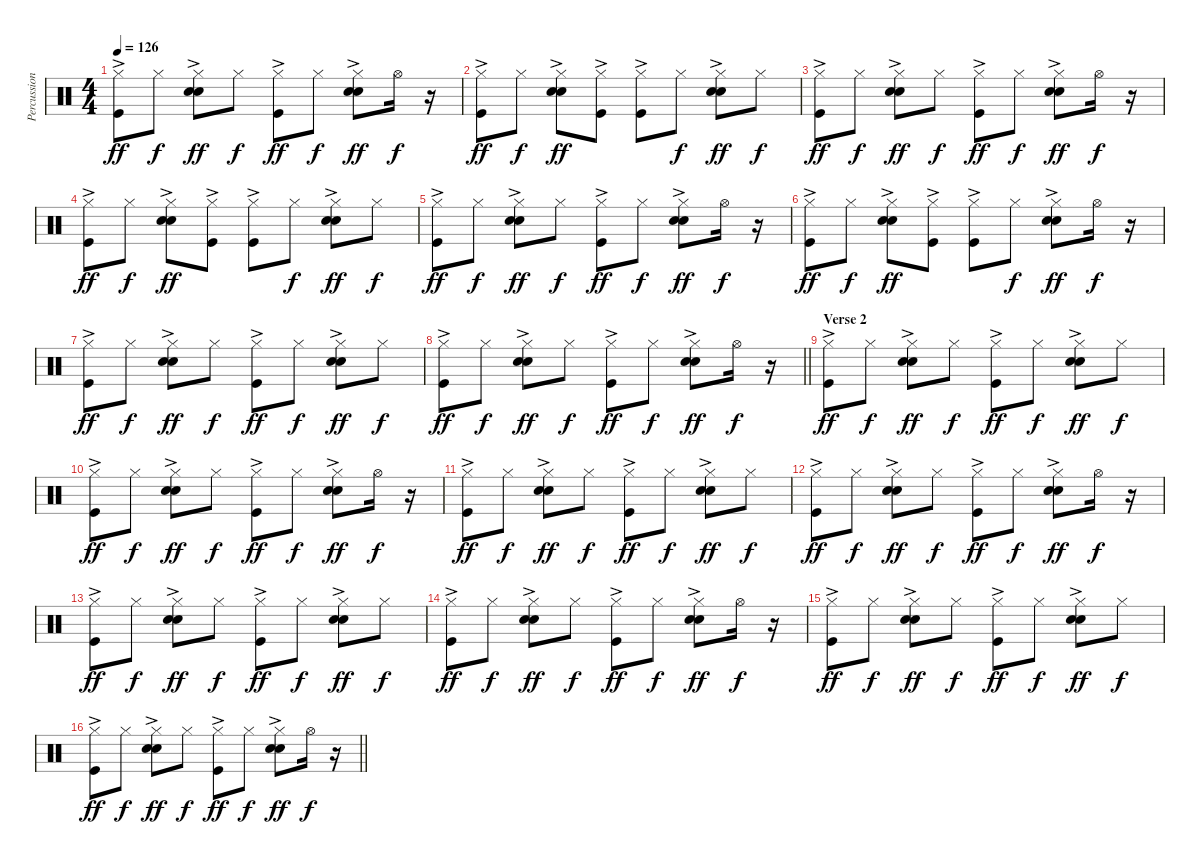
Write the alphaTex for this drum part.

\track ("Percussion" "Percussion") {instrument percussion}
\staff {score}
\articulation defaults
\ts (4 4)
\tempo 126
\clef neutral
\ks c
("Hi-Hat (closed)" "Kick (hit)"{ac}).8{dy ff} "Hi-Hat (closed)".8{dy f} ("Hi-Hat (closed)" "Hand Clap (hit)"{ac} "Snare (hit) 2"{ac}).8{dy ff} "Hi-Hat (closed)".8{dy f} ("Hi-Hat (closed)" "Kick (hit)"{ac}).8{dy ff} "Hi-Hat (closed)".8{dy f} ("Hi-Hat (closed)" "Hand Clap (hit)"{ac} "Snare (hit) 2"{ac}).8{dy ff} "Hi-Hat (open)".16{dy f} r.16 |
("Hi-Hat (closed)" "Kick (hit)"{ac}).8{dy ff} "Hi-Hat (closed)".8{dy f} ("Hi-Hat (closed)" "Hand Clap (hit)"{ac} "Snare (hit) 2"{ac}).8{dy ff} ("Hi-Hat (closed)" "Kick (hit)"{ac}).8 ("Hi-Hat (closed)" "Kick (hit)"{ac}).8 "Hi-Hat (closed)".8{dy f} ("Hi-Hat (closed)" "Hand Clap (hit)"{ac} "Snare (hit) 2"{ac}).8{dy ff} "Hi-Hat (closed)".8{dy f} |
("Hi-Hat (closed)" "Kick (hit)"{ac}).8{dy ff} "Hi-Hat (closed)".8{dy f} ("Hi-Hat (closed)" "Hand Clap (hit)"{ac} "Snare (hit) 2"{ac}).8{dy ff} "Hi-Hat (closed)".8{dy f} ("Hi-Hat (closed)" "Kick (hit)"{ac}).8{dy ff} "Hi-Hat (closed)".8{dy f} ("Hi-Hat (closed)" "Hand Clap (hit)"{ac} "Snare (hit) 2"{ac}).8{dy ff} "Hi-Hat (open)".16{dy f} r.16 |
("Hi-Hat (closed)" "Kick (hit)"{ac}).8{dy ff} "Hi-Hat (closed)".8{dy f} ("Hi-Hat (closed)" "Hand Clap (hit)"{ac} "Snare (hit) 2"{ac}).8{dy ff} ("Hi-Hat (closed)" "Kick (hit)"{ac}).8 ("Hi-Hat (closed)" "Kick (hit)"{ac}).8 "Hi-Hat (closed)".8{dy f} ("Hi-Hat (closed)" "Hand Clap (hit)"{ac} "Snare (hit) 2"{ac}).8{dy ff} "Hi-Hat (closed)".8{dy f} |
("Hi-Hat (closed)" "Kick (hit)"{ac}).8{dy ff} "Hi-Hat (closed)".8{dy f} ("Hi-Hat (closed)" "Hand Clap (hit)"{ac} "Snare (hit) 2"{ac}).8{dy ff} "Hi-Hat (closed)".8{dy f} ("Hi-Hat (closed)" "Kick (hit)"{ac}).8{dy ff} "Hi-Hat (closed)".8{dy f} ("Hi-Hat (closed)" "Hand Clap (hit)"{ac} "Snare (hit) 2"{ac}).8{dy ff} "Hi-Hat (open)".16{dy f} r.16 |
("Hi-Hat (closed)" "Kick (hit)"{ac}).8{dy ff} "Hi-Hat (closed)".8{dy f} ("Hi-Hat (closed)" "Hand Clap (hit)"{ac} "Snare (hit) 2"{ac}).8{dy ff} ("Hi-Hat (closed)" "Kick (hit)"{ac}).8 ("Hi-Hat (closed)" "Kick (hit)"{ac}).8 "Hi-Hat (closed)".8{dy f} ("Hi-Hat (closed)" "Hand Clap (hit)"{ac} "Snare (hit) 2"{ac}).8{dy ff} "Hi-Hat (open)".16{dy f} r.16 |
("Hi-Hat (closed)" "Kick (hit)"{ac}).8{dy ff} "Hi-Hat (closed)".8{dy f} ("Hi-Hat (closed)" "Hand Clap (hit)"{ac} "Snare (hit) 2").8{dy ff} "Hi-Hat (closed)".8{dy f} ("Hi-Hat (closed)" "Kick (hit)"{ac}).8{dy ff} "Hi-Hat (closed)".8{dy f} ("Hi-Hat (closed)" "Hand Clap (hit)"{ac} "Snare (hit) 2").8{dy ff} "Hi-Hat (closed)".8{dy f} |
\barLineRight lightlight
("Hi-Hat (closed)" "Kick (hit)"{ac}).8{dy ff} "Hi-Hat (closed)".8{dy f} ("Hi-Hat (closed)" "Hand Clap (hit)"{ac} "Snare (hit) 2").8{dy ff} "Hi-Hat (closed)".8{dy f} ("Hi-Hat (closed)" "Kick (hit)"{ac}).8{dy ff} "Hi-Hat (closed)".8{dy f} ("Hi-Hat (closed)" "Hand Clap (hit)"{ac} "Snare (hit) 2").8{dy ff} "Hi-Hat (open)".16{dy f} r.16 |
\section ("" "Verse 2")
("Hi-Hat (closed)" "Kick (hit)"{ac}).8{dy ff} "Hi-Hat (closed)".8{dy f} ("Hi-Hat (closed)" "Hand Clap (hit)"{ac} "Snare (hit) 2").8{dy ff} "Hi-Hat (closed)".8{dy f} ("Hi-Hat (closed)" "Kick (hit)"{ac}).8{dy ff} "Hi-Hat (closed)".8{dy f} ("Hi-Hat (closed)" "Hand Clap (hit)"{ac} "Snare (hit) 2").8{dy ff} "Hi-Hat (closed)".8{dy f} |
("Hi-Hat (closed)" "Kick (hit)"{ac}).8{dy ff} "Hi-Hat (closed)".8{dy f} ("Hi-Hat (closed)" "Hand Clap (hit)"{ac} "Snare (hit) 2").8{dy ff} "Hi-Hat (closed)".8{dy f} ("Hi-Hat (closed)" "Kick (hit)"{ac}).8{dy ff} "Hi-Hat (closed)".8{dy f} ("Hi-Hat (closed)" "Hand Clap (hit)"{ac} "Snare (hit) 2").8{dy ff} "Hi-Hat (open)".16{dy f} r.16 |
("Hi-Hat (closed)" "Kick (hit)"{ac}).8{dy ff} "Hi-Hat (closed)".8{dy f} ("Hi-Hat (closed)" "Hand Clap (hit)"{ac} "Snare (hit) 2").8{dy ff} "Hi-Hat (closed)".8{dy f} ("Hi-Hat (closed)" "Kick (hit)"{ac}).8{dy ff} "Hi-Hat (closed)".8{dy f} ("Hi-Hat (closed)" "Hand Clap (hit)"{ac} "Snare (hit) 2").8{dy ff} "Hi-Hat (closed)".8{dy f} |
("Hi-Hat (closed)" "Kick (hit)"{ac}).8{dy ff} "Hi-Hat (closed)".8{dy f} ("Hi-Hat (closed)" "Hand Clap (hit)"{ac} "Snare (hit) 2").8{dy ff} "Hi-Hat (closed)".8{dy f} ("Hi-Hat (closed)" "Kick (hit)"{ac}).8{dy ff} "Hi-Hat (closed)".8{dy f} ("Hi-Hat (closed)" "Hand Clap (hit)"{ac} "Snare (hit) 2").8{dy ff} "Hi-Hat (open)".16{dy f} r.16 |
("Hi-Hat (closed)" "Kick (hit)"{ac}).8{dy ff} "Hi-Hat (closed)".8{dy f} ("Hi-Hat (closed)" "Hand Clap (hit)"{ac} "Snare (hit) 2").8{dy ff} "Hi-Hat (closed)".8{dy f} ("Hi-Hat (closed)" "Kick (hit)"{ac}).8{dy ff} "Hi-Hat (closed)".8{dy f} ("Hi-Hat (closed)" "Hand Clap (hit)"{ac} "Snare (hit) 2").8{dy ff} "Hi-Hat (closed)".8{dy f} |
("Hi-Hat (closed)" "Kick (hit)"{ac}).8{dy ff} "Hi-Hat (closed)".8{dy f} ("Hi-Hat (closed)" "Hand Clap (hit)"{ac} "Snare (hit) 2").8{dy ff} "Hi-Hat (closed)".8{dy f} ("Hi-Hat (closed)" "Kick (hit)"{ac}).8{dy ff} "Hi-Hat (closed)".8{dy f} ("Hi-Hat (closed)" "Hand Clap (hit)"{ac} "Snare (hit) 2").8{dy ff} "Hi-Hat (open)".16{dy f} r.16 |
("Hi-Hat (closed)" "Kick (hit)"{ac}).8{dy ff} "Hi-Hat (closed)".8{dy f} ("Hi-Hat (closed)" "Hand Clap (hit)"{ac} "Snare (hit) 2").8{dy ff} "Hi-Hat (closed)".8{dy f} ("Hi-Hat (closed)" "Kick (hit)"{ac}).8{dy ff} "Hi-Hat (closed)".8{dy f} ("Hi-Hat (closed)" "Hand Clap (hit)"{ac} "Snare (hit) 2").8{dy ff} "Hi-Hat (closed)".8{dy f} |
\barLineRight lightlight
("Hi-Hat (closed)" "Kick (hit)"{ac}).8{dy ff} "Hi-Hat (closed)".8{dy f} ("Hi-Hat (closed)" "Hand Clap (hit)"{ac} "Snare (hit) 2").8{dy ff} "Hi-Hat (closed)".8{dy f} ("Hi-Hat (closed)" "Kick (hit)"{ac}).8{dy ff} "Hi-Hat (closed)".8{dy f} ("Hi-Hat (closed)" "Hand Clap (hit)"{ac} "Snare (hit) 2").8{dy ff} "Hi-Hat (open)".16{dy f} r.16
